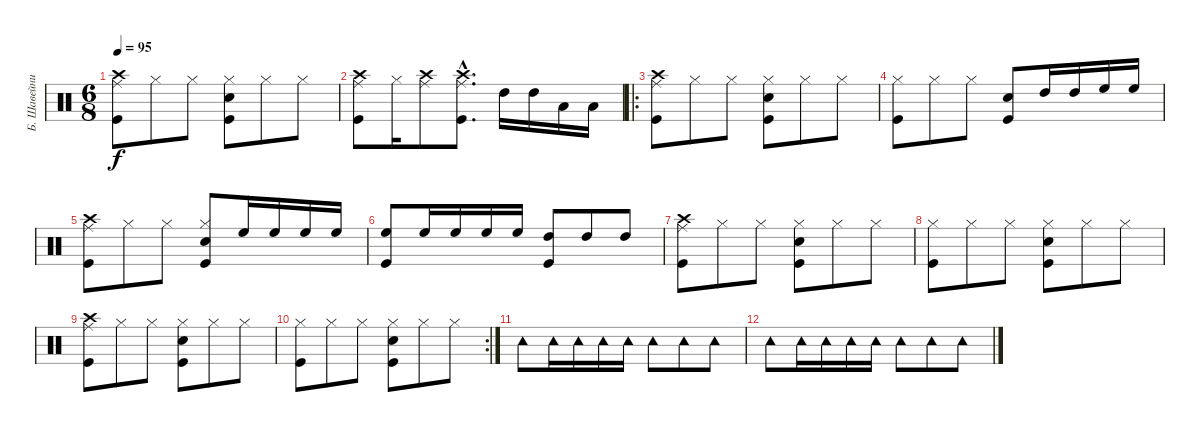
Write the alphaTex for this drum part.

\track ("Б. Шавейников" "Б. Шавейни") {instrument percussion}
\staff {score}
\articulation defaults
\ts (6 8)
\tempo 95
\clef neutral
\ks c
("Ride (middle)" "Crash high (hit)" "Kick (hit)").8{dy f} "Hi-Hat (closed)".8 "Hi-Hat (closed)".8 ("Hi-Hat (closed)" "Snare (hit) 2" "Kick (hit)").8 "Hi-Hat (closed)".8 "Hi-Hat (closed)".8 |
("Ride (middle)" "Crash high (hit)" "Kick (hit)").8 "Hi-Hat (closed)".16 ("Ride (middle)" "Crash high (hit)").8 ("Ride (middle)"{hac} "Crash high (hit)"{hac} "Kick (hit)"{hac}).8{d} "High Tom (hit)".16 "High Tom (hit)".16 "Low Tom (hit)".16 "Low Tom (hit)".16 |
\ro
("Ride (middle)" "Crash high (hit)" "Kick (hit)").8 "Hi-Hat (closed)".8 "Hi-Hat (closed)".8 ("Hi-Hat (closed)" "Snare (hit) 2" "Kick (hit)").8 "Hi-Hat (closed)".8 "Hi-Hat (closed)".8 |
("Hi-Hat (closed)" "Kick (hit)").8 "Hi-Hat (closed)".8 "Hi-Hat (closed)".8 ("Snare (hit) 2" "Kick (hit)").8 "High Tom (hit)".16 "High Tom (hit)".16 "High Floor Tom (hit)".16 "High Floor Tom (hit)".16 |
("Ride (middle)" "Crash high (hit)" "Kick (hit)").8 "Hi-Hat (closed)".8 "Hi-Hat (closed)".8 ("Hi-Hat (closed)" "Snare (hit) 2" "Kick (hit)").8 "High Floor Tom (hit)"{x}.16 "High Floor Tom (hit)".16 "High Floor Tom (hit)".16 "High Floor Tom (hit)".16 |
("High Floor Tom (hit)" "Kick (hit)").8 "High Floor Tom (hit)".16 "High Floor Tom (hit)".16 "High Floor Tom (hit)".16 "High Floor Tom (hit)".16 ("High Tom (hit)" "Kick (hit)").8 "High Tom (hit)".8 "High Tom (hit)".8 |
("Ride (middle)" "Crash high (hit)" "Kick (hit)").8 "Hi-Hat (closed)".8 "Hi-Hat (closed)".8 ("Hi-Hat (closed)" "Snare (hit) 2" "Kick (hit)").8 "Hi-Hat (closed)".8 "Hi-Hat (closed)".8 |
("Hi-Hat (closed)" "Kick (hit)").8 "Hi-Hat (closed)".8 "Hi-Hat (closed)".8 ("Hi-Hat (closed)" "Snare (hit) 2" "Kick (hit)").8 "Hi-Hat (closed)".8 "Hi-Hat (closed)".8 |
("Ride (middle)" "Crash high (hit)" "Kick (hit)").8 "Hi-Hat (closed)".8 "Hi-Hat (closed)".8 ("Hi-Hat (closed)" "Snare (hit) 2" "Kick (hit)").8 "Hi-Hat (closed)".8 "Hi-Hat (closed)".8 |
\rc 2
("Hi-Hat (closed)" "Kick (hit)").8 "Hi-Hat (closed)".8 "Hi-Hat (closed)".8 ("Hi-Hat (closed)" "Snare (hit) 2" "Kick (hit)").8 "Hi-Hat (closed)".8 "Hi-Hat (closed)".8 |
"Tambourine (hit)".8 "Tambourine (hit)".16 "Tambourine (hit)".16 "Tambourine (hit)".16 "Tambourine (hit)".16 "Tambourine (hit)".8 "Tambourine (hit)".8 "Tambourine (hit)".8 |
"Tambourine (hit)".8 "Tambourine (hit)".16 "Tambourine (hit)".16 "Tambourine (hit)".16 "Tambourine (hit)".16 "Tambourine (hit)".8 "Tambourine (hit)".8 "Tambourine (hit)".8
